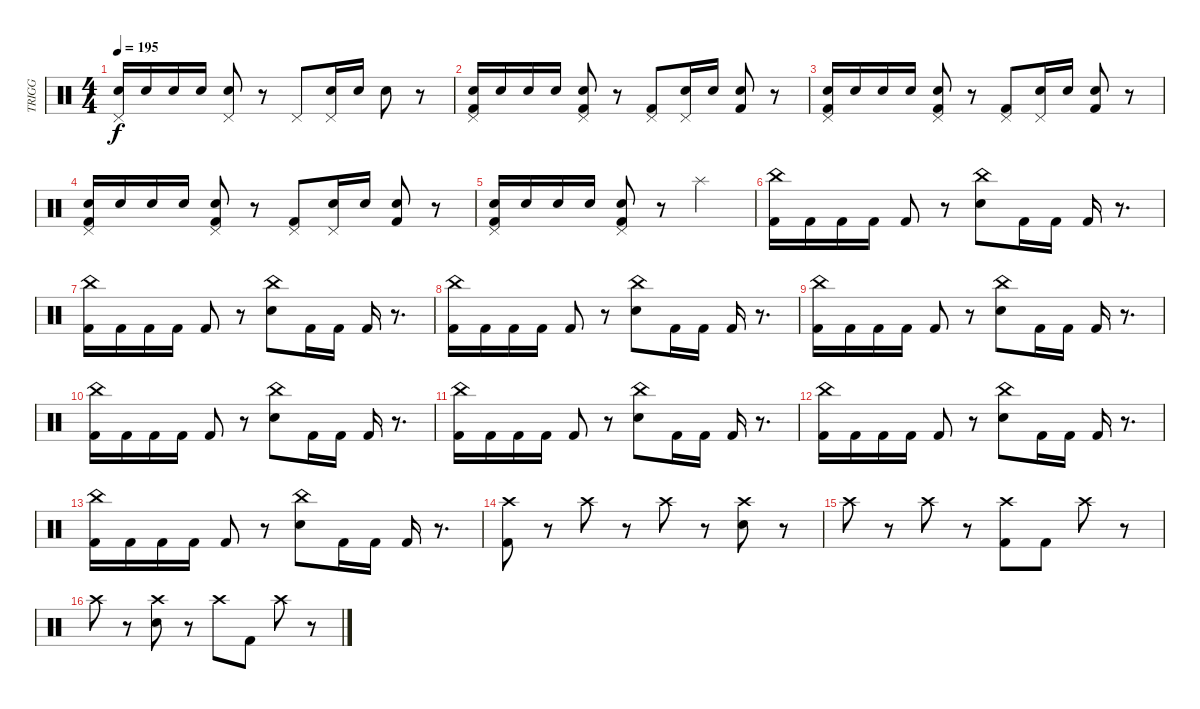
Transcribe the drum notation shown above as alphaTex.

\track ("TRIGG" "TRIGG") {instrument percussion}
\staff {score}
\articulation defaults
\ts (4 4)
\tempo 195
\clef neutral
\ks c
("Pedal Hi-Hat (hit)" "Electric Snare (hit)").16{dy f} "Electric Snare (hit)".16 "Electric Snare (hit)".16 "Electric Snare (hit)".16 ("Pedal Hi-Hat (hit)" "Electric Snare (hit)").8 r.8 "Pedal Hi-Hat (hit)".8 ("Pedal Hi-Hat (hit)" "Electric Snare (hit)").16 "Electric Snare (hit)".16 "Electric Snare (hit)".8 r.8 |
("Pedal Hi-Hat (hit)" "Electric Snare (hit)" "Kick (hit) 2").16 "Electric Snare (hit)".16 "Electric Snare (hit)".16 "Electric Snare (hit)".16 ("Pedal Hi-Hat (hit)" "Electric Snare (hit)" "Kick (hit) 2").8 r.8 ("Pedal Hi-Hat (hit)" "Kick (hit) 2").8 ("Pedal Hi-Hat (hit)" "Electric Snare (hit)").16 "Electric Snare (hit)".16 ("Electric Snare (hit)" "Kick (hit) 2").8 r.8 |
("Pedal Hi-Hat (hit)" "Electric Snare (hit)" "Kick (hit) 2").16 "Electric Snare (hit)".16 "Electric Snare (hit)".16 "Electric Snare (hit)".16 ("Pedal Hi-Hat (hit)" "Electric Snare (hit)" "Kick (hit) 2").8 r.8 ("Pedal Hi-Hat (hit)" "Kick (hit) 2").8 ("Pedal Hi-Hat (hit)" "Electric Snare (hit)").16 "Electric Snare (hit)".16 ("Electric Snare (hit)" "Kick (hit) 2").8 r.8 |
("Pedal Hi-Hat (hit)" "Electric Snare (hit)" "Kick (hit) 2").16 "Electric Snare (hit)".16 "Electric Snare (hit)".16 "Electric Snare (hit)".16 ("Pedal Hi-Hat (hit)" "Electric Snare (hit)" "Kick (hit) 2").8 r.8 ("Pedal Hi-Hat (hit)" "Kick (hit) 2").8 ("Pedal Hi-Hat (hit)" "Electric Snare (hit)").16 "Electric Snare (hit)".16 ("Electric Snare (hit)" "Kick (hit) 2").8 r.8 |
("Pedal Hi-Hat (hit)" "Electric Snare (hit)" "Kick (hit) 2").16 "Electric Snare (hit)".16 "Electric Snare (hit)".16 "Electric Snare (hit)".16 ("Pedal Hi-Hat (hit)" "Electric Snare (hit)" "Kick (hit) 2").8 r.8 "Splash (hit)".2 |
("China (hit)" "Kick (hit) 2").16 "Kick (hit) 2".16 "Kick (hit) 2".16 "Kick (hit) 2".16 "Kick (hit) 2".8 r.8 ("China (hit)" "Electric Snare (hit)").8 "Kick (hit) 2".16 "Kick (hit) 2".16 "Kick (hit) 2".16 r.8{d} |
("China (hit)" "Kick (hit) 2").16 "Kick (hit) 2".16 "Kick (hit) 2".16 "Kick (hit) 2".16 "Kick (hit) 2".8 r.8 ("China (hit)" "Electric Snare (hit)").8 "Kick (hit) 2".16 "Kick (hit) 2".16 "Kick (hit) 2".16 r.8{d} |
("China (hit)" "Kick (hit) 2").16 "Kick (hit) 2".16 "Kick (hit) 2".16 "Kick (hit) 2".16 "Kick (hit) 2".8 r.8 ("China (hit)" "Electric Snare (hit)").8 "Kick (hit) 2".16 "Kick (hit) 2".16 "Kick (hit) 2".16 r.8{d} |
("China (hit)" "Kick (hit) 2").16 "Kick (hit) 2".16 "Kick (hit) 2".16 "Kick (hit) 2".16 "Kick (hit) 2".8 r.8 ("China (hit)" "Electric Snare (hit)").8 "Kick (hit) 2".16 "Kick (hit) 2".16 "Kick (hit) 2".16 r.8{d} |
("China (hit)" "Kick (hit) 2").16 "Kick (hit) 2".16 "Kick (hit) 2".16 "Kick (hit) 2".16 "Kick (hit) 2".8 r.8 ("China (hit)" "Electric Snare (hit)").8 "Kick (hit) 2".16 "Kick (hit) 2".16 "Kick (hit) 2".16 r.8{d} |
("China (hit)" "Kick (hit) 2").16 "Kick (hit) 2".16 "Kick (hit) 2".16 "Kick (hit) 2".16 "Kick (hit) 2".8 r.8 ("China (hit)" "Electric Snare (hit)").8 "Kick (hit) 2".16 "Kick (hit) 2".16 "Kick (hit) 2".16 r.8{d} |
("China (hit)" "Kick (hit) 2").16 "Kick (hit) 2".16 "Kick (hit) 2".16 "Kick (hit) 2".16 "Kick (hit) 2".8 r.8 ("China (hit)" "Electric Snare (hit)").8 "Kick (hit) 2".16 "Kick (hit) 2".16 "Kick (hit) 2".16 r.8{d} |
("China (hit)" "Kick (hit) 2").16 "Kick (hit) 2".16 "Kick (hit) 2".16 "Kick (hit) 2".16 "Kick (hit) 2".8 r.8 ("China (hit)" "Electric Snare (hit)").8 "Kick (hit) 2".16 "Kick (hit) 2".16 "Kick (hit) 2".16 r.8{d} |
("Crash high (hit)" "Kick (hit) 2").8 r.8 "Crash high (hit)".8 r.8 "Crash high (hit)".8 r.8 ("Crash high (hit)" "Electric Snare (hit)").8 r.8 |
"Crash high (hit)".8 r.8 "Crash high (hit)".8 r.8 ("Crash high (hit)" "Kick (hit) 2").8 "Kick (hit) 2".8 "Crash high (hit)".8 r.8 |
"Crash high (hit)".8 r.8 ("Crash high (hit)" "Electric Snare (hit)").8 r.8 "Crash high (hit)".8 "Kick (hit) 2".8 "Crash high (hit)".8 r.8
